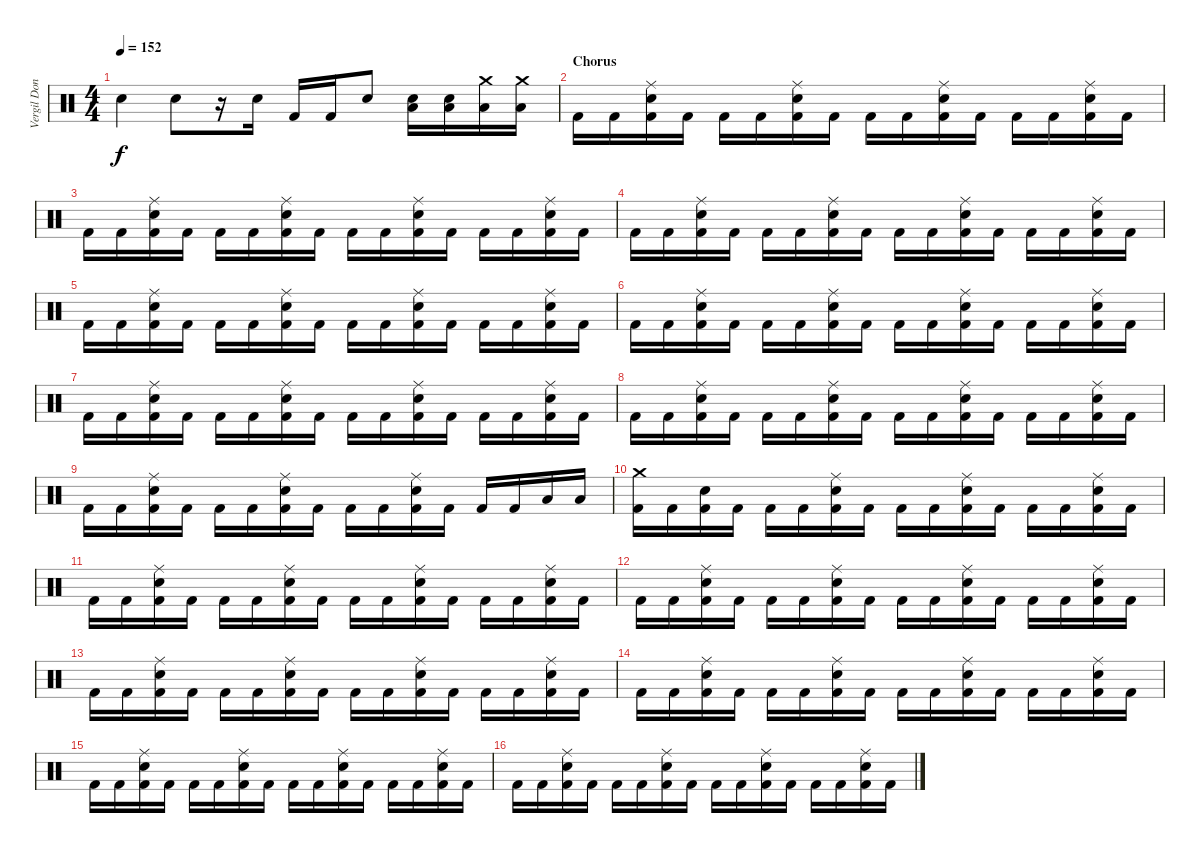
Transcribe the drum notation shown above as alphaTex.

\track ("Vergil Donati" "Vergil Don") {instrument percussion}
\staff {score}
\articulation defaults
\ts (4 4)
\tempo 152
\clef neutral
\ks c "Electric Snare (hit)".4{dy f} "Electric Snare (hit)".8
r.16 "Electric Snare (hit)".16 "Kick (hit) 2".16 "Kick (hit) 2".16 "Electric Snare (hit)".8 ("Electric Snare (hit)" "Low Tom (hit)").16 ("Electric Snare (hit)" "Low Tom (hit)").16 ("Crash medium (hit)" "Low Floor Tom (hit)").16 ("Crash medium (hit)" "Low Floor Tom (hit)").16 |
\section ("" "Chorus")
"Kick (hit) 2".16 "Kick (hit) 2".16 ("Electric Snare (hit)" "Ride (middle)" "Kick (hit) 2").16 "Kick (hit) 2".16 "Kick (hit) 2".16 "Kick (hit) 2".16 ("Electric Snare (hit)" "Ride (middle)" "Kick (hit) 2").16 "Kick (hit) 2".16 "Kick (hit) 2".16 "Kick (hit) 2".16 ("Electric Snare (hit)" "Ride (middle)" "Kick (hit) 2").16 "Kick (hit) 2".16 "Kick (hit) 2".16 "Kick (hit) 2".16 ("Electric Snare (hit)" "Ride (middle)" "Kick (hit) 2").16 "Kick (hit) 2".16 |
"Kick (hit) 2".16 "Kick (hit) 2".16 ("Electric Snare (hit)" "Ride (middle)" "Kick (hit) 2").16 "Kick (hit) 2".16 "Kick (hit) 2".16 "Kick (hit) 2".16 ("Electric Snare (hit)" "Ride (middle)" "Kick (hit) 2").16 "Kick (hit) 2".16 "Kick (hit) 2".16 "Kick (hit) 2".16 ("Electric Snare (hit)" "Ride (middle)" "Kick (hit) 2").16 "Kick (hit) 2".16 "Kick (hit) 2".16 "Kick (hit) 2".16 ("Electric Snare (hit)" "Ride (middle)" "Kick (hit) 2").16 "Kick (hit) 2".16 |
"Kick (hit) 2".16 "Kick (hit) 2".16 ("Electric Snare (hit)" "Ride (middle)" "Kick (hit) 2").16 "Kick (hit) 2".16 "Kick (hit) 2".16 "Kick (hit) 2".16 ("Electric Snare (hit)" "Ride (middle)" "Kick (hit) 2").16 "Kick (hit) 2".16 "Kick (hit) 2".16 "Kick (hit) 2".16 ("Electric Snare (hit)" "Ride (middle)" "Kick (hit) 2").16 "Kick (hit) 2".16 "Kick (hit) 2".16 "Kick (hit) 2".16 ("Electric Snare (hit)" "Ride (middle)" "Kick (hit) 2").16 "Kick (hit) 2".16 |
"Kick (hit) 2".16 "Kick (hit) 2".16 ("Electric Snare (hit)" "Ride (middle)" "Kick (hit) 2").16 "Kick (hit) 2".16 "Kick (hit) 2".16 "Kick (hit) 2".16 ("Electric Snare (hit)" "Ride (middle)" "Kick (hit) 2").16 "Kick (hit) 2".16 "Kick (hit) 2".16 "Kick (hit) 2".16 ("Electric Snare (hit)" "Ride (middle)" "Kick (hit) 2").16 "Kick (hit) 2".16 "Kick (hit) 2".16 "Kick (hit) 2".16 ("Electric Snare (hit)" "Ride (middle)" "Kick (hit) 2").16 "Kick (hit) 2".16 |
"Kick (hit) 2".16 "Kick (hit) 2".16 ("Electric Snare (hit)" "Ride (middle)" "Kick (hit) 2").16 "Kick (hit) 2".16 "Kick (hit) 2".16 "Kick (hit) 2".16 ("Electric Snare (hit)" "Ride (middle)" "Kick (hit) 2").16 "Kick (hit) 2".16 "Kick (hit) 2".16 "Kick (hit) 2".16 ("Electric Snare (hit)" "Ride (middle)" "Kick (hit) 2").16 "Kick (hit) 2".16 "Kick (hit) 2".16 "Kick (hit) 2".16 ("Electric Snare (hit)" "Ride (middle)" "Kick (hit) 2").16 "Kick (hit) 2".16 |
"Kick (hit) 2".16 "Kick (hit) 2".16 ("Electric Snare (hit)" "Ride (middle)" "Kick (hit) 2").16 "Kick (hit) 2".16 "Kick (hit) 2".16 "Kick (hit) 2".16 ("Electric Snare (hit)" "Ride (middle)" "Kick (hit) 2").16 "Kick (hit) 2".16 "Kick (hit) 2".16 "Kick (hit) 2".16 ("Electric Snare (hit)" "Ride (middle)" "Kick (hit) 2").16 "Kick (hit) 2".16 "Kick (hit) 2".16 "Kick (hit) 2".16 ("Electric Snare (hit)" "Ride (middle)" "Kick (hit) 2").16 "Kick (hit) 2".16 |
"Kick (hit) 2".16 "Kick (hit) 2".16 ("Electric Snare (hit)" "Ride (middle)" "Kick (hit) 2").16 "Kick (hit) 2".16 "Kick (hit) 2".16 "Kick (hit) 2".16 ("Electric Snare (hit)" "Ride (middle)" "Kick (hit) 2").16 "Kick (hit) 2".16 "Kick (hit) 2".16 "Kick (hit) 2".16 ("Electric Snare (hit)" "Ride (middle)" "Kick (hit) 2").16 "Kick (hit) 2".16 "Kick (hit) 2".16 "Kick (hit) 2".16 ("Electric Snare (hit)" "Ride (middle)" "Kick (hit) 2").16 "Kick (hit) 2".16 |
"Kick (hit) 2".16 "Kick (hit) 2".16 ("Electric Snare (hit)" "Ride (middle)" "Kick (hit) 2").16 "Kick (hit) 2".16 "Kick (hit) 2".16 "Kick (hit) 2".16 ("Electric Snare (hit)" "Ride (middle)" "Kick (hit) 2").16 "Kick (hit) 2".16 "Kick (hit) 2".16 "Kick (hit) 2".16 ("Electric Snare (hit)" "Ride (middle)" "Kick (hit) 2").16 "Kick (hit) 2".16 "Kick (hit) 2".16 "Kick (hit) 2".16 "Low Floor Tom (hit)".16 "Low Floor Tom (hit)".16 |
("Crash medium (hit)" "Kick (hit) 2").16 "Kick (hit) 2".16 ("Electric Snare (hit)" "Kick (hit) 2").16 "Kick (hit) 2".16 "Kick (hit) 2".16 "Kick (hit) 2".16 ("Electric Snare (hit)" "Ride (middle)" "Kick (hit) 2").16 "Kick (hit) 2".16 "Kick (hit) 2".16 "Kick (hit) 2".16 ("Electric Snare (hit)" "Ride (middle)" "Kick (hit) 2").16 "Kick (hit) 2".16 "Kick (hit) 2".16 "Kick (hit) 2".16 ("Electric Snare (hit)" "Ride (middle)" "Kick (hit) 2").16 "Kick (hit) 2".16 |
"Kick (hit) 2".16 "Kick (hit) 2".16 ("Electric Snare (hit)" "Ride (middle)" "Kick (hit) 2").16 "Kick (hit) 2".16 "Kick (hit) 2".16 "Kick (hit) 2".16 ("Electric Snare (hit)" "Ride (middle)" "Kick (hit) 2").16 "Kick (hit) 2".16 "Kick (hit) 2".16 "Kick (hit) 2".16 ("Electric Snare (hit)" "Ride (middle)" "Kick (hit) 2").16 "Kick (hit) 2".16 "Kick (hit) 2".16 "Kick (hit) 2".16 ("Electric Snare (hit)" "Ride (middle)" "Kick (hit) 2").16 "Kick (hit) 2".16 |
"Kick (hit) 2".16 "Kick (hit) 2".16 ("Electric Snare (hit)" "Ride (middle)" "Kick (hit) 2").16 "Kick (hit) 2".16 "Kick (hit) 2".16 "Kick (hit) 2".16 ("Electric Snare (hit)" "Ride (middle)" "Kick (hit) 2").16 "Kick (hit) 2".16 "Kick (hit) 2".16 "Kick (hit) 2".16 ("Electric Snare (hit)" "Ride (middle)" "Kick (hit) 2").16 "Kick (hit) 2".16 "Kick (hit) 2".16 "Kick (hit) 2".16 ("Electric Snare (hit)" "Ride (middle)" "Kick (hit) 2").16 "Kick (hit) 2".16 |
"Kick (hit) 2".16 "Kick (hit) 2".16 ("Electric Snare (hit)" "Ride (middle)" "Kick (hit) 2").16 "Kick (hit) 2".16 "Kick (hit) 2".16 "Kick (hit) 2".16 ("Electric Snare (hit)" "Ride (middle)" "Kick (hit) 2").16 "Kick (hit) 2".16 "Kick (hit) 2".16 "Kick (hit) 2".16 ("Electric Snare (hit)" "Ride (middle)" "Kick (hit) 2").16 "Kick (hit) 2".16 "Kick (hit) 2".16 "Kick (hit) 2".16 ("Electric Snare (hit)" "Ride (middle)" "Kick (hit) 2").16 "Kick (hit) 2".16 |
"Kick (hit) 2".16 "Kick (hit) 2".16 ("Electric Snare (hit)" "Ride (middle)" "Kick (hit) 2").16 "Kick (hit) 2".16 "Kick (hit) 2".16 "Kick (hit) 2".16 ("Electric Snare (hit)" "Ride (middle)" "Kick (hit) 2").16 "Kick (hit) 2".16 "Kick (hit) 2".16 "Kick (hit) 2".16 ("Electric Snare (hit)" "Ride (middle)" "Kick (hit) 2").16 "Kick (hit) 2".16 "Kick (hit) 2".16 "Kick (hit) 2".16 ("Electric Snare (hit)" "Ride (middle)" "Kick (hit) 2").16 "Kick (hit) 2".16 |
"Kick (hit) 2".16 "Kick (hit) 2".16 ("Electric Snare (hit)" "Ride (middle)" "Kick (hit) 2").16 "Kick (hit) 2".16 "Kick (hit) 2".16 "Kick (hit) 2".16 ("Electric Snare (hit)" "Ride (middle)" "Kick (hit) 2").16 "Kick (hit) 2".16 "Kick (hit) 2".16 "Kick (hit) 2".16 ("Electric Snare (hit)" "Ride (middle)" "Kick (hit) 2").16 "Kick (hit) 2".16 "Kick (hit) 2".16 "Kick (hit) 2".16 ("Electric Snare (hit)" "Ride (middle)" "Kick (hit) 2").16 "Kick (hit) 2".16 |
"Kick (hit) 2".16 "Kick (hit) 2".16 ("Electric Snare (hit)" "Ride (middle)" "Kick (hit) 2").16 "Kick (hit) 2".16 "Kick (hit) 2".16 "Kick (hit) 2".16 ("Electric Snare (hit)" "Ride (middle)" "Kick (hit) 2").16 "Kick (hit) 2".16 "Kick (hit) 2".16 "Kick (hit) 2".16 ("Electric Snare (hit)" "Ride (middle)" "Kick (hit) 2").16 "Kick (hit) 2".16 "Kick (hit) 2".16 "Kick (hit) 2".16 ("Electric Snare (hit)" "Ride (middle)" "Kick (hit) 2").16 "Kick (hit) 2".16
